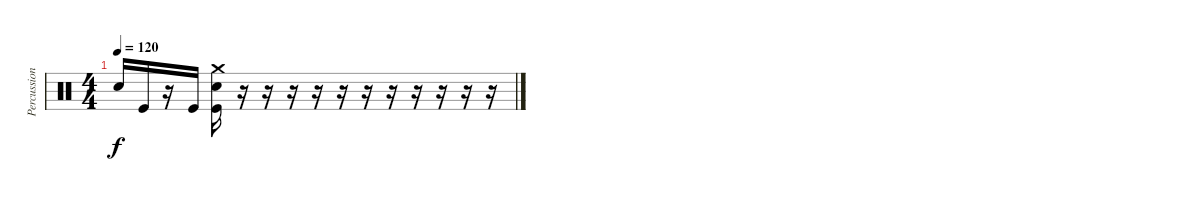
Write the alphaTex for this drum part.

\track ("Percussion" "Percussion") {instrument percussion}
\staff {score}
\articulation defaults
\ts (4 4)
\tempo 120
\clef neutral
\ks c "Electric Snare (hit)".16{dy f} "Kick (hit)".16
r.16 "Kick (hit)".16 ("Kick (hit)" "Electric Snare (hit)" "Crash medium (hit)").16 r.16 r.16 r.16 r.16 r.16 r.16 r.16 r.16 r.16 r.16 r.16
